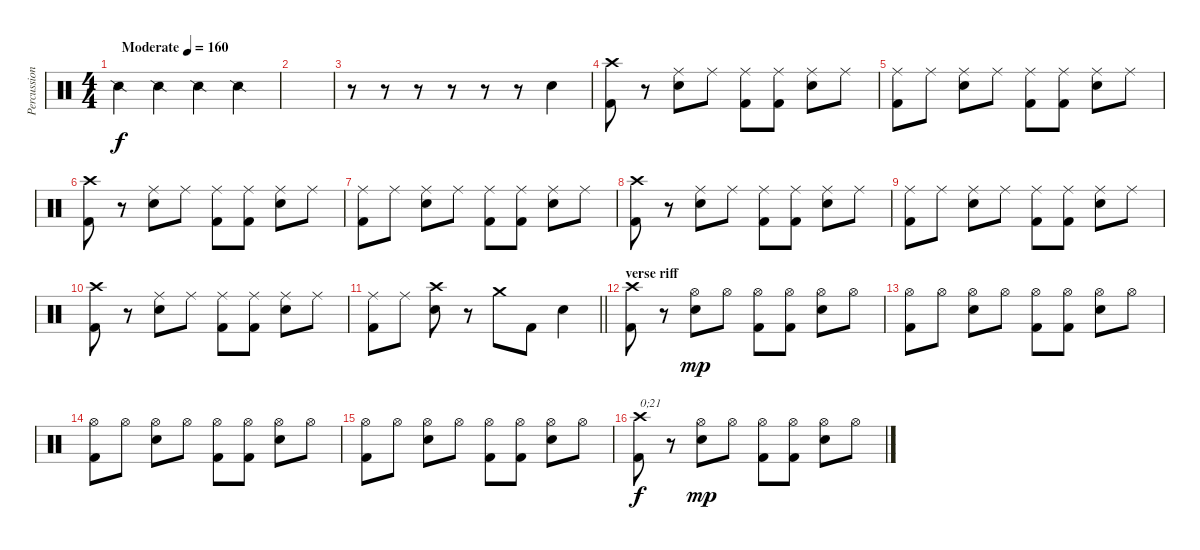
\track ("Percussion - album" "Percussion") {mute instrument percussion}
\staff {score}
\articulation defaults
\ts (4 4)
\tempo (160 "Moderate")
\clef neutral
\ks c "Snare (side stick) 2".4{dy f} "Snare (side stick) 2".4 "Snare (side stick) 2".4 "Snare (side stick) 2".4
|
|
r.8 r.8 r.8 r.8 r.8 r.8 "Snare (hit) 2".4 |
("Crash high (hit)" "Kick (hit) 2").8 r.8 ("Ride (middle)" "Snare (hit) 2").8 "Ride (middle)".8 ("Ride (middle)" "Kick (hit) 2").8 ("Ride (middle)" "Kick (hit) 2").8 ("Ride (middle)" "Snare (hit) 2").8 "Ride (middle)".8 |
("Ride (middle)" "Kick (hit) 2").8 "Ride (middle)".8 ("Ride (middle)" "Snare (hit) 2").8 "Ride (middle)".8 ("Ride (middle)" "Kick (hit) 2").8 ("Ride (middle)" "Kick (hit) 2").8 ("Ride (middle)" "Snare (hit) 2").8 "Ride (middle)".8 |
("Crash high (hit)" "Kick (hit) 2").8 r.8 ("Ride (middle)" "Snare (hit) 2").8 "Ride (middle)".8 ("Ride (middle)" "Kick (hit) 2").8 ("Ride (middle)" "Kick (hit) 2").8 ("Ride (middle)" "Snare (hit) 2").8 "Ride (middle)".8 |
("Ride (middle)" "Kick (hit) 2").8 "Ride (middle)".8 ("Ride (middle)" "Snare (hit) 2").8 "Ride (middle)".8 ("Ride (middle)" "Kick (hit) 2").8 ("Ride (middle)" "Kick (hit) 2").8 ("Ride (middle)" "Snare (hit) 2").8 "Ride (middle)".8 |
("Crash high (hit)" "Kick (hit) 2").8 r.8 ("Ride (middle)" "Snare (hit) 2").8 "Ride (middle)".8 ("Ride (middle)" "Kick (hit) 2").8 ("Ride (middle)" "Kick (hit) 2").8 ("Ride (middle)" "Snare (hit) 2").8 "Ride (middle)".8 |
("Ride (middle)" "Kick (hit) 2").8 "Ride (middle)".8 ("Ride (middle)" "Snare (hit) 2").8 "Ride (middle)".8 ("Ride (middle)" "Kick (hit) 2").8 ("Ride (middle)" "Kick (hit) 2").8 ("Ride (middle)" "Snare (hit) 2").8 "Ride (middle)".8 |
("Crash high (hit)" "Kick (hit) 2").8 r.8 ("Ride (middle)" "Snare (hit) 2").8 "Ride (middle)".8 ("Ride (middle)" "Kick (hit) 2").8 ("Ride (middle)" "Kick (hit) 2").8 ("Ride (middle)" "Snare (hit) 2").8 "Ride (middle)".8 |
\barLineRight lightlight
("Ride (middle)" "Kick (hit) 2").8 "Ride (middle)".8 ("Crash high (hit)" "Snare (hit) 2").8 r.8 "Crash medium (hit)".8 "Kick (hit) 2".8 "Snare (hit) 2".4 |
\section ("" "verse riff")
("Crash high (hit)" "Kick (hit) 2").8 r.8 ("Hi-Hat (open)" "Snare (hit) 2").8{dy mp} "Hi-Hat (open)".8 ("Hi-Hat (open)" "Kick (hit) 2").8 ("Hi-Hat (open)" "Kick (hit) 2").8 ("Hi-Hat (open)" "Snare (hit) 2").8 "Hi-Hat (open)".8 |
("Hi-Hat (open)" "Kick (hit) 2").8 "Hi-Hat (open)".8 ("Hi-Hat (open)" "Snare (hit) 2").8 "Hi-Hat (open)".8 ("Hi-Hat (open)" "Kick (hit) 2").8 ("Hi-Hat (open)" "Kick (hit) 2").8 ("Hi-Hat (open)" "Snare (hit) 2").8 "Hi-Hat (open)".8 |
("Hi-Hat (open)" "Kick (hit) 2").8 "Hi-Hat (open)".8 ("Hi-Hat (open)" "Snare (hit) 2").8 "Hi-Hat (open)".8 ("Hi-Hat (open)" "Kick (hit) 2").8 ("Hi-Hat (open)" "Kick (hit) 2").8 ("Hi-Hat (open)" "Snare (hit) 2").8 "Hi-Hat (open)".8 |
("Hi-Hat (open)" "Kick (hit) 2").8 "Hi-Hat (open)".8 ("Hi-Hat (open)" "Snare (hit) 2").8 "Hi-Hat (open)".8 ("Hi-Hat (open)" "Kick (hit) 2").8 ("Hi-Hat (open)" "Kick (hit) 2").8 ("Hi-Hat (open)" "Snare (hit) 2").8 "Hi-Hat (open)".8 |
("Crash high (hit)" "Kick (hit) 2").8{txt "0;21" dy f} r.8 ("Hi-Hat (open)" "Snare (hit) 2").8{dy mp} "Hi-Hat (open)".8 ("Hi-Hat (open)" "Kick (hit) 2").8 ("Hi-Hat (open)" "Kick (hit) 2").8 ("Hi-Hat (open)" "Snare (hit) 2").8 "Hi-Hat (open)".8
